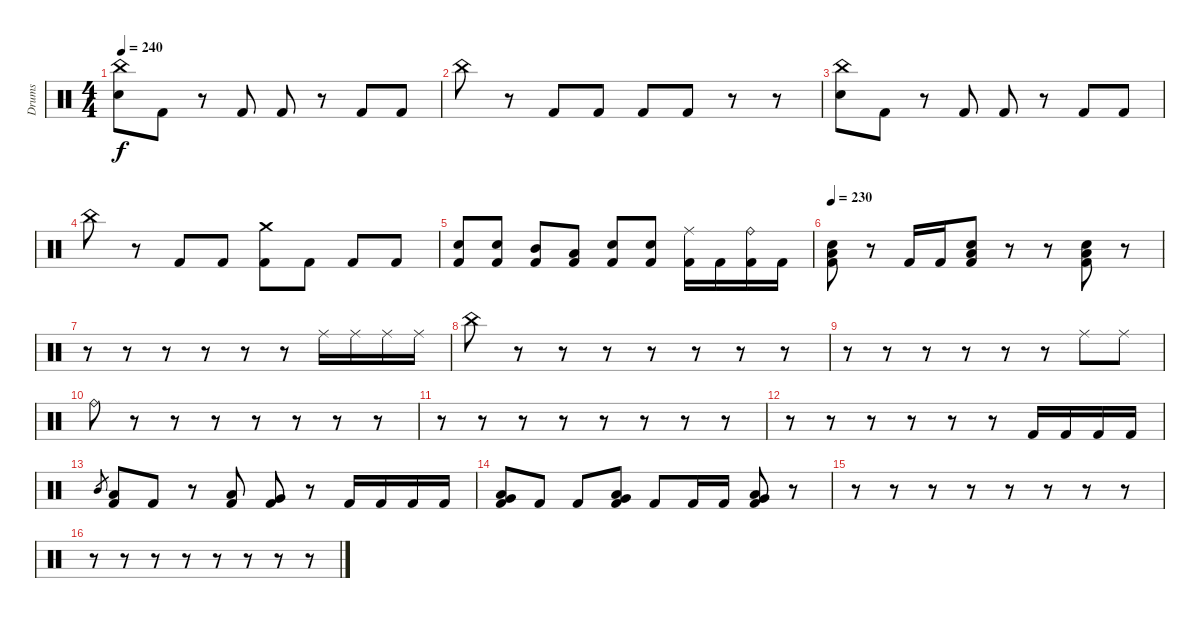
\track ("Drums" "Drums") {instrument percussion}
\staff
\articulation defaults
\ts (4 4)
\tempo 240
\clef neutral
\ks c
("China (hit)" "Electric Snare (hit)").8{dy f} "Kick (hit) 2".8 r.8 "Kick (hit) 2".8 "Kick (hit) 2".8 r.8 "Kick (hit) 2".8 "Kick (hit) 2".8 |
"China (hit)".8 r.8 "Kick (hit) 2".8 "Kick (hit) 2".8 "Kick (hit) 2".8 "Kick (hit) 2".8 r.8 r.8 |
("China (hit)" "Electric Snare (hit)").8 "Kick (hit) 2".8 r.8 "Kick (hit) 2".8 "Kick (hit) 2".8 r.8 "Kick (hit) 2".8 "Kick (hit) 2".8 |
"China (hit)".8 r.8 "Kick (hit) 2".8 "Kick (hit) 2".8 ("Crash medium (hit)" "Kick (hit) 2").8 "Kick (hit) 2".8 "Kick (hit) 2".8 "Kick (hit) 2".8 |
("Electric Snare (hit)" "Kick (hit) 2").8 ("Electric Snare (hit)" "Kick (hit) 2").8 ("Mid Tom (hit)" "Kick (hit) 2").8 ("Low Tom (hit)" "Kick (hit) 2").8 ("Electric Snare (hit)" "Kick (hit) 2").8 ("Electric Snare (hit)" "Kick (hit) 2").8 ("Ride (middle)" "Kick (hit) 2").16 "Kick (hit) 2".16 ("Ride (bell)" "Kick (hit) 2").16 "Kick (hit) 2".16 |
\tempo 230
("Electric Snare (hit)" "Low Floor Tom (hit)" "Kick (hit) 2").8 r.8 "Kick (hit) 2".16 "Kick (hit) 2".16 ("Electric Snare (hit)" "Low Floor Tom (hit)" "Kick (hit) 2").8 r.8 r.8 ("Electric Snare (hit)" "Low Floor Tom (hit)" "Kick (hit) 2").8 r.8 |
r.8 r.8 r.8 r.8 r.8 r.8 "Ride (middle)".16 "Ride (middle)".16 "Ride (middle)".16 "Ride (middle)".16 |
"China (hit)".8 r.8 r.8 r.8 r.8 r.8 r.8 r.8 |
r.8 r.8 r.8 r.8 r.8 r.8 "Ride (middle)".8 "Ride (middle)".8 |
"Ride (bell)".8 r.8 r.8 r.8 r.8 r.8 r.8 r.8 |
r.8 r.8 r.8 r.8 r.8 r.8 r.8 r.8 |
r.8 r.8 r.8 r.8 r.8 r.8 "Kick (hit) 2".16 "Kick (hit) 2".16 "Kick (hit) 2".16 "Kick (hit) 2".16 |
"Mid Tom (hit)".8{gr} ("Low Tom (hit)" "Kick (hit) 2").8 "Kick (hit) 2".8 r.8 ("Low Tom (hit)" "Kick (hit) 2").8 ("Very Low Tom (hit)" "Kick (hit) 2").8 r.8 "Kick (hit) 2".16 "Kick (hit) 2".16 "Kick (hit) 2".16 "Kick (hit) 2".16 |
("Low Floor Tom (hit)" "Very Low Tom (hit)" "Kick (hit) 2").8 "Kick (hit) 2".8 "Kick (hit) 2".8 ("Low Floor Tom (hit)" "Very Low Tom (hit)" "Kick (hit) 2").8 "Kick (hit) 2".8 "Kick (hit) 2".16 "Kick (hit) 2".16 ("Low Floor Tom (hit)" "Very Low Tom (hit)" "Kick (hit) 2").8 r.8 |
r.8 r.8 r.8 r.8 r.8 r.8 r.8 r.8 |
r.8 r.8 r.8 r.8 r.8 r.8 r.8 r.8
